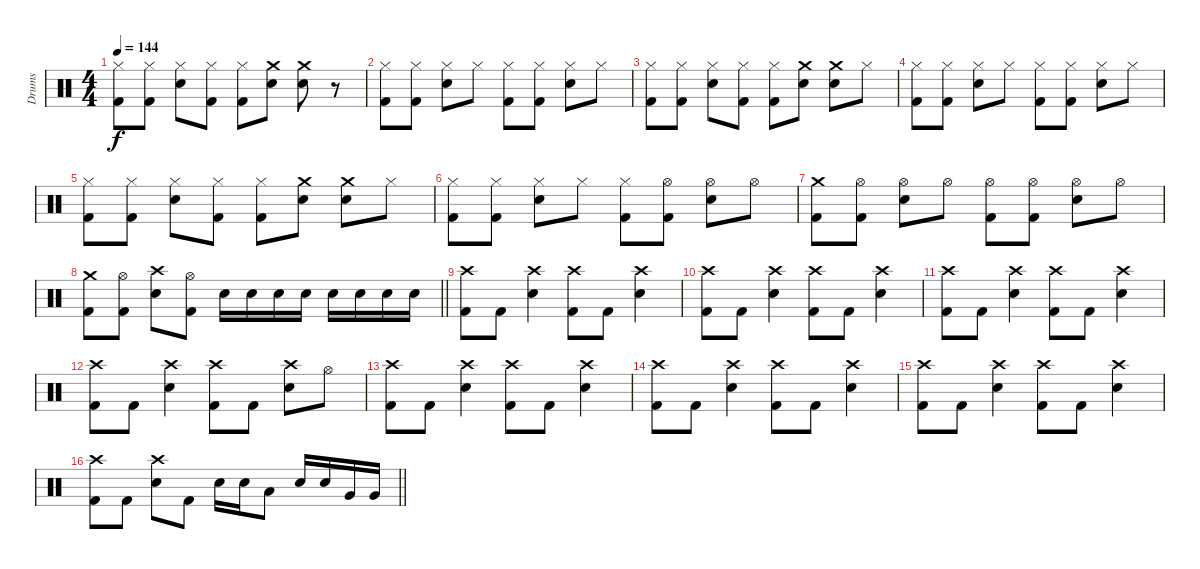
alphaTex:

\track ("Drums" "Drums") {instrument percussion}
\staff {score}
\articulation defaults
\ts (4 4)
\tempo 144
\clef neutral
\ks c
("Hi-Hat (closed)" "Kick (hit) 2").8{dy f} ("Hi-Hat (closed)" "Kick (hit) 2").8 ("Hi-Hat (closed)" "Electric Snare (hit)").8 ("Hi-Hat (closed)" "Kick (hit) 2").8 ("Hi-Hat (closed)" "Kick (hit) 2").8 ("Crash medium (hit)" "Electric Snare (hit)").8 ("Crash medium (hit)" "Electric Snare (hit)").8 r.8 |
("Hi-Hat (closed)" "Kick (hit) 2").8 ("Hi-Hat (closed)" "Kick (hit) 2").8 ("Hi-Hat (closed)" "Electric Snare (hit)").8 "Hi-Hat (closed)".8 ("Hi-Hat (closed)" "Kick (hit) 2").8 ("Hi-Hat (closed)" "Kick (hit) 2").8 ("Hi-Hat (closed)" "Electric Snare (hit)").8 "Hi-Hat (closed)".8 |
("Hi-Hat (closed)" "Kick (hit) 2").8 ("Hi-Hat (closed)" "Kick (hit) 2").8 ("Hi-Hat (closed)" "Electric Snare (hit)").8 ("Hi-Hat (closed)" "Kick (hit) 2").8 ("Hi-Hat (closed)" "Kick (hit) 2").8 ("Crash medium (hit)" "Electric Snare (hit)").8 ("Crash medium (hit)" "Electric Snare (hit)").8 "Hi-Hat (closed)".8 |
("Hi-Hat (closed)" "Kick (hit) 2").8 ("Hi-Hat (closed)" "Kick (hit) 2").8 ("Hi-Hat (closed)" "Electric Snare (hit)").8 "Hi-Hat (closed)".8 ("Hi-Hat (closed)" "Kick (hit) 2").8 ("Hi-Hat (closed)" "Kick (hit) 2").8 ("Hi-Hat (closed)" "Electric Snare (hit)").8 "Hi-Hat (closed)".8 |
("Hi-Hat (closed)" "Kick (hit) 2").8 ("Hi-Hat (closed)" "Kick (hit) 2").8 ("Hi-Hat (closed)" "Electric Snare (hit)").8 ("Hi-Hat (closed)" "Kick (hit) 2").8 ("Hi-Hat (closed)" "Kick (hit) 2").8 ("Crash medium (hit)" "Electric Snare (hit)").8 ("Crash medium (hit)" "Electric Snare (hit)").8 "Hi-Hat (closed)".8 |
("Hi-Hat (closed)" "Kick (hit) 2").8 ("Hi-Hat (closed)" "Kick (hit) 2").8 ("Hi-Hat (closed)" "Electric Snare (hit)").8 "Hi-Hat (closed)".8 ("Hi-Hat (closed)" "Kick (hit) 2").8 ("Hi-Hat (open)" "Kick (hit) 2").8 ("Hi-Hat (open)" "Electric Snare (hit)").8 "Hi-Hat (open)".8 |
("Crash medium (hit)" "Kick (hit) 2").8 ("Hi-Hat (open)" "Kick (hit) 2").8 ("Hi-Hat (open)" "Electric Snare (hit)").8 "Hi-Hat (open)".8 ("Hi-Hat (open)" "Kick (hit) 2").8 ("Hi-Hat (open)" "Kick (hit) 2").8 ("Hi-Hat (open)" "Electric Snare (hit)").8 "Hi-Hat (open)".8 |
\barLineRight lightlight
("Crash medium (hit)" "Kick (hit) 2").8 ("Hi-Hat (open)" "Kick (hit) 2").8 ("Crash high (hit)" "Electric Snare (hit)").8 ("Hi-Hat (open)" "Kick (hit) 2").8 "Electric Snare (hit)".16 "Electric Snare (hit)".16 "Electric Snare (hit)".16 "Electric Snare (hit)".16 "Electric Snare (hit)".16 "Electric Snare (hit)".16 "Electric Snare (hit)".16 "Electric Snare (hit)".16 |
("Crash high (hit)" "Kick (hit) 2").8 "Kick (hit) 2".8 ("Crash high (hit)" "Electric Snare (hit)").4 ("Crash high (hit)" "Kick (hit) 2").8 "Kick (hit) 2".8 ("Crash high (hit)" "Electric Snare (hit)").4 |
("Crash high (hit)" "Kick (hit) 2").8 "Kick (hit) 2".8 ("Crash high (hit)" "Electric Snare (hit)").4 ("Crash high (hit)" "Kick (hit) 2").8 "Kick (hit) 2".8 ("Crash high (hit)" "Electric Snare (hit)").4 |
("Crash high (hit)" "Kick (hit) 2").8 "Kick (hit) 2".8 ("Crash high (hit)" "Electric Snare (hit)").4 ("Crash high (hit)" "Kick (hit) 2").8 "Kick (hit) 2".8 ("Crash high (hit)" "Electric Snare (hit)").4 |
("Crash high (hit)" "Kick (hit) 2").8 "Kick (hit) 2".8 ("Crash high (hit)" "Electric Snare (hit)").4 ("Crash high (hit)" "Kick (hit) 2").8 "Kick (hit) 2".8 ("Crash high (hit)" "Electric Snare (hit)").8 "Hi-Hat (open)".8 |
("Crash high (hit)" "Kick (hit) 2").8 "Kick (hit) 2".8 ("Crash high (hit)" "Electric Snare (hit)").4 ("Crash high (hit)" "Kick (hit) 2").8 "Kick (hit) 2".8 ("Crash high (hit)" "Electric Snare (hit)").4 |
("Crash high (hit)" "Kick (hit) 2").8 "Kick (hit) 2".8 ("Crash high (hit)" "Electric Snare (hit)").4 ("Crash high (hit)" "Kick (hit) 2").8 "Kick (hit) 2".8 ("Crash high (hit)" "Electric Snare (hit)").4 |
("Crash high (hit)" "Kick (hit) 2").8 "Kick (hit) 2".8 ("Crash high (hit)" "Electric Snare (hit)").4 ("Crash high (hit)" "Kick (hit) 2").8 "Kick (hit) 2".8 ("Crash high (hit)" "Electric Snare (hit)").4 |
\barLineRight lightlight
("Crash high (hit)" "Kick (hit) 2").8 "Kick (hit) 2".8 ("Crash high (hit)" "Electric Snare (hit)").8 "Kick (hit) 2".8 "Electric Snare (hit)".16 "Electric Snare (hit)".16 "Low Tom (hit)".8 "Electric Snare (hit)".16 "Electric Snare (hit)".16 "Very Low Tom (hit)".16 "Very Low Tom (hit)".16
